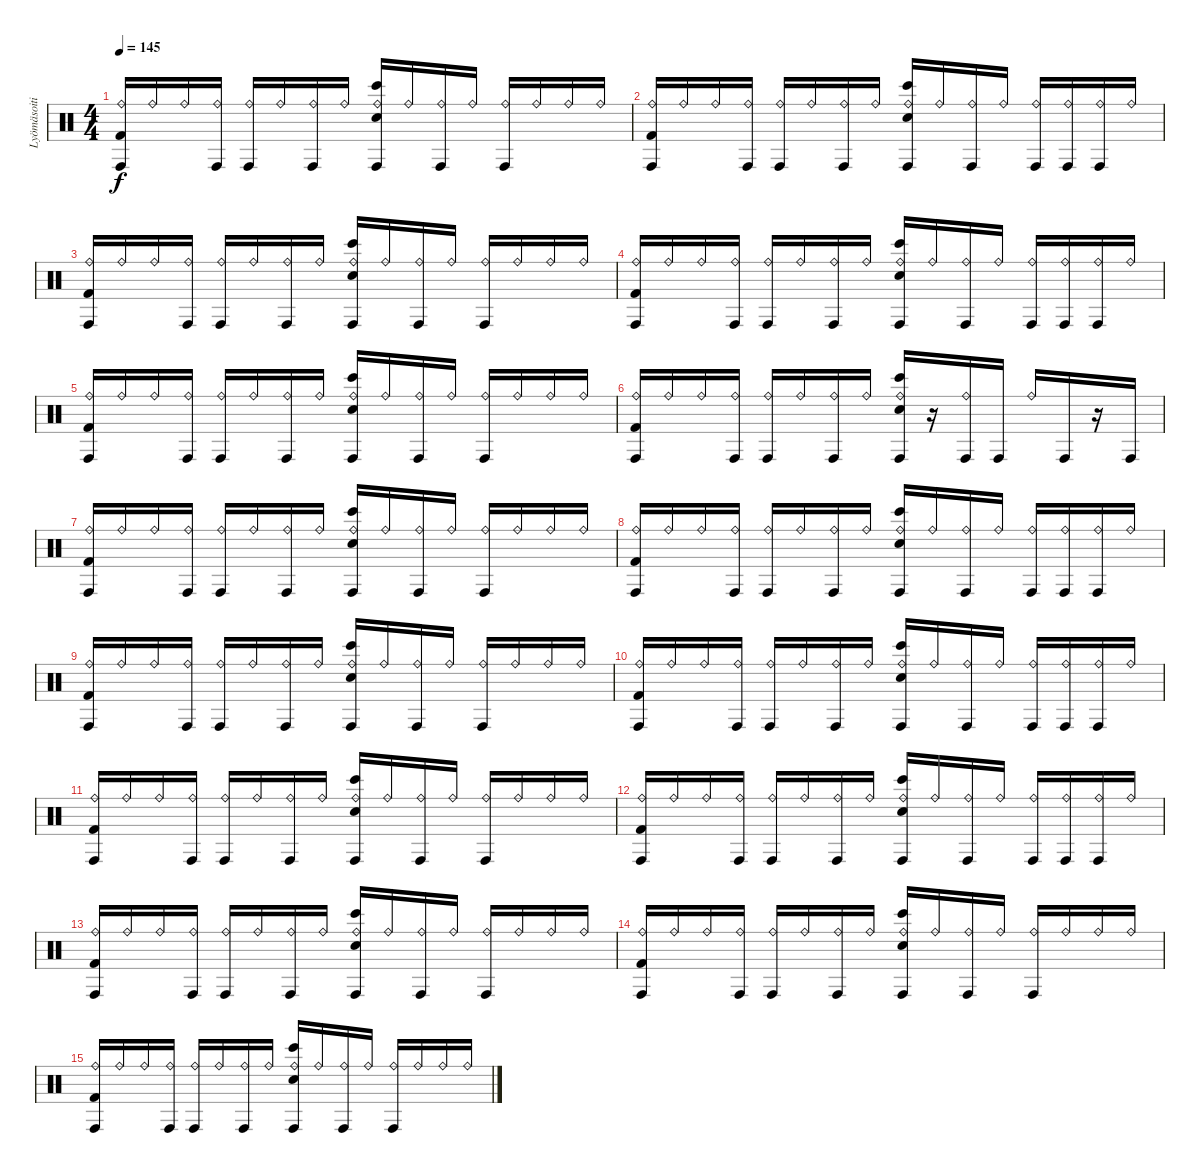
\track ("Lyömäsoitin" "Lyömäsoiti") {instrument percussion}
\staff {score}
\articulation defaults
\ts (4 4)
\tempo 145
\clef neutral
\ks c
("Ride (bell)" "Conga high (hit)" "Kick (hit) 2").16{dy f} "Ride (bell)".16 "Ride (bell)".16 ("Ride (bell)" "Conga high (hit)").16 ("Ride (bell)" "Conga high (hit)").16 "Ride (bell)".16 ("Ride (bell)" "Conga high (hit)").16 "Ride (bell)".16 ("Ride (bell)" "Conga high (hit)" "Bongo High (hit)" "Electric Snare (hit)").16 "Ride (bell)".16 ("Ride (bell)" "Conga high (hit)").16 "Ride (bell)".16 ("Ride (bell)" "Conga high (hit)").16 "Ride (bell)".16 "Ride (bell)".16 "Ride (bell)".16 |
("Ride (bell)" "Conga high (hit)" "Kick (hit) 2").16 "Ride (bell)".16 "Ride (bell)".16 ("Ride (bell)" "Conga high (hit)").16 ("Ride (bell)" "Conga high (hit)").16 "Ride (bell)".16 ("Ride (bell)" "Conga high (hit)").16 "Ride (bell)".16 ("Ride (bell)" "Conga high (hit)" "Bongo High (hit)" "Electric Snare (hit)").16 "Ride (bell)".16 ("Ride (bell)" "Conga high (hit)").16 "Ride (bell)".16 ("Ride (bell)" "Conga high (hit)").16 ("Ride (bell)" "Conga high (hit)").16 ("Ride (bell)" "Conga high (hit)").16 "Ride (bell)".16 |
("Ride (bell)" "Conga high (hit)" "Kick (hit) 2").16 "Ride (bell)".16 "Ride (bell)".16 ("Ride (bell)" "Conga high (hit)").16 ("Ride (bell)" "Conga high (hit)").16 "Ride (bell)".16 ("Ride (bell)" "Conga high (hit)").16 "Ride (bell)".16 ("Ride (bell)" "Conga high (hit)" "Bongo High (hit)" "Electric Snare (hit)").16 "Ride (bell)".16 ("Ride (bell)" "Conga high (hit)").16 "Ride (bell)".16 ("Ride (bell)" "Conga high (hit)").16 "Ride (bell)".16 "Ride (bell)".16 "Ride (bell)".16 |
("Ride (bell)" "Conga high (hit)" "Kick (hit) 2").16 "Ride (bell)".16 "Ride (bell)".16 ("Ride (bell)" "Conga high (hit)").16 ("Ride (bell)" "Conga high (hit)").16 "Ride (bell)".16 ("Ride (bell)" "Conga high (hit)").16 "Ride (bell)".16 ("Ride (bell)" "Conga high (hit)" "Bongo High (hit)" "Electric Snare (hit)").16 "Ride (bell)".16 ("Ride (bell)" "Conga high (hit)").16 "Ride (bell)".16 ("Ride (bell)" "Conga high (hit)").16 ("Ride (bell)" "Conga high (hit)").16 ("Ride (bell)" "Conga high (hit)").16 "Ride (bell)".16 |
("Ride (bell)" "Conga high (hit)" "Kick (hit) 2").16 "Ride (bell)".16 "Ride (bell)".16 ("Ride (bell)" "Conga high (hit)").16 ("Ride (bell)" "Conga high (hit)").16 "Ride (bell)".16 ("Ride (bell)" "Conga high (hit)").16 "Ride (bell)".16 ("Ride (bell)" "Conga high (hit)" "Bongo High (hit)" "Electric Snare (hit)").16 "Ride (bell)".16 ("Ride (bell)" "Conga high (hit)").16 "Ride (bell)".16 ("Ride (bell)" "Conga high (hit)").16 "Ride (bell)".16 "Ride (bell)".16 "Ride (bell)".16 |
("Ride (bell)" "Conga high (hit)" "Kick (hit) 2").16 "Ride (bell)".16 "Ride (bell)".16 ("Ride (bell)" "Conga high (hit)").16 ("Ride (bell)" "Conga high (hit)").16 "Ride (bell)".16 ("Ride (bell)" "Conga high (hit)").16 "Ride (bell)".16 ("Ride (bell)" "Conga high (hit)" "Bongo High (hit)" "Electric Snare (hit)").16 r.16 ("Ride (bell)" "Conga high (hit)").16 "Conga high (hit)".16 "Ride (bell)".16 "Conga high (hit)".16 r.16 "Conga high (hit)".16 |
("Ride (bell)" "Conga high (hit)" "Kick (hit) 2").16 "Ride (bell)".16 "Ride (bell)".16 ("Ride (bell)" "Conga high (hit)").16 ("Ride (bell)" "Conga high (hit)").16 "Ride (bell)".16 ("Ride (bell)" "Conga high (hit)").16 "Ride (bell)".16 ("Ride (bell)" "Conga high (hit)" "Bongo High (hit)" "Electric Snare (hit)").16 "Ride (bell)".16 ("Ride (bell)" "Conga high (hit)").16 "Ride (bell)".16 ("Ride (bell)" "Conga high (hit)").16 "Ride (bell)".16 "Ride (bell)".16 "Ride (bell)".16 |
("Ride (bell)" "Conga high (hit)" "Kick (hit) 2").16 "Ride (bell)".16 "Ride (bell)".16 ("Ride (bell)" "Conga high (hit)").16 ("Ride (bell)" "Conga high (hit)").16 "Ride (bell)".16 ("Ride (bell)" "Conga high (hit)").16 "Ride (bell)".16 ("Ride (bell)" "Conga high (hit)" "Bongo High (hit)" "Electric Snare (hit)").16 "Ride (bell)".16 ("Ride (bell)" "Conga high (hit)").16 "Ride (bell)".16 ("Ride (bell)" "Conga high (hit)").16 ("Ride (bell)" "Conga high (hit)").16 ("Ride (bell)" "Conga high (hit)").16 "Ride (bell)".16 |
("Ride (bell)" "Conga high (hit)" "Kick (hit) 2").16 "Ride (bell)".16 "Ride (bell)".16 ("Ride (bell)" "Conga high (hit)").16 ("Ride (bell)" "Conga high (hit)").16 "Ride (bell)".16 ("Ride (bell)" "Conga high (hit)").16 "Ride (bell)".16 ("Ride (bell)" "Conga high (hit)" "Bongo High (hit)" "Electric Snare (hit)").16 "Ride (bell)".16 ("Ride (bell)" "Conga high (hit)").16 "Ride (bell)".16 ("Ride (bell)" "Conga high (hit)").16 "Ride (bell)".16 "Ride (bell)".16 "Ride (bell)".16 |
("Ride (bell)" "Conga high (hit)" "Kick (hit) 2").16 "Ride (bell)".16 "Ride (bell)".16 ("Ride (bell)" "Conga high (hit)").16 ("Ride (bell)" "Conga high (hit)").16 "Ride (bell)".16 ("Ride (bell)" "Conga high (hit)").16 "Ride (bell)".16 ("Ride (bell)" "Conga high (hit)" "Bongo High (hit)" "Electric Snare (hit)").16 "Ride (bell)".16 ("Ride (bell)" "Conga high (hit)").16 "Ride (bell)".16 ("Ride (bell)" "Conga high (hit)").16 ("Ride (bell)" "Conga high (hit)").16 ("Ride (bell)" "Conga high (hit)").16 "Ride (bell)".16 |
("Ride (bell)" "Conga high (hit)" "Kick (hit) 2").16 "Ride (bell)".16 "Ride (bell)".16 ("Ride (bell)" "Conga high (hit)").16 ("Ride (bell)" "Conga high (hit)").16 "Ride (bell)".16 ("Ride (bell)" "Conga high (hit)").16 "Ride (bell)".16 ("Ride (bell)" "Conga high (hit)" "Bongo High (hit)" "Electric Snare (hit)").16 "Ride (bell)".16 ("Ride (bell)" "Conga high (hit)").16 "Ride (bell)".16 ("Ride (bell)" "Conga high (hit)").16 "Ride (bell)".16 "Ride (bell)".16 "Ride (bell)".16 |
("Ride (bell)" "Conga high (hit)" "Kick (hit) 2").16 "Ride (bell)".16 "Ride (bell)".16 ("Ride (bell)" "Conga high (hit)").16 ("Ride (bell)" "Conga high (hit)").16 "Ride (bell)".16 ("Ride (bell)" "Conga high (hit)").16 "Ride (bell)".16 ("Ride (bell)" "Conga high (hit)" "Bongo High (hit)" "Electric Snare (hit)").16 "Ride (bell)".16 ("Ride (bell)" "Conga high (hit)").16 "Ride (bell)".16 ("Ride (bell)" "Conga high (hit)").16 ("Ride (bell)" "Conga high (hit)").16 ("Ride (bell)" "Conga high (hit)").16 "Ride (bell)".16 |
("Ride (bell)" "Conga high (hit)" "Kick (hit) 2").16 "Ride (bell)".16 "Ride (bell)".16 ("Ride (bell)" "Conga high (hit)").16 ("Ride (bell)" "Conga high (hit)").16 "Ride (bell)".16 ("Ride (bell)" "Conga high (hit)").16 "Ride (bell)".16 ("Ride (bell)" "Conga high (hit)" "Bongo High (hit)" "Electric Snare (hit)").16 "Ride (bell)".16 ("Ride (bell)" "Conga high (hit)").16 "Ride (bell)".16 ("Ride (bell)" "Conga high (hit)").16 "Ride (bell)".16 "Ride (bell)".16 "Ride (bell)".16 |
("Ride (bell)" "Conga high (hit)" "Kick (hit) 2").16{volume 0} "Ride (bell)".16 "Ride (bell)".16 ("Ride (bell)" "Conga high (hit)").16 ("Ride (bell)" "Conga high (hit)").16 "Ride (bell)".16 ("Ride (bell)" "Conga high (hit)").16 "Ride (bell)".16 ("Ride (bell)" "Conga high (hit)" "Bongo High (hit)" "Electric Snare (hit)").16 "Ride (bell)".16 ("Ride (bell)" "Conga high (hit)").16 "Ride (bell)".16 ("Ride (bell)" "Conga high (hit)").16 "Ride (bell)".16 "Ride (bell)".16 "Ride (bell)".16 |
("Ride (bell)" "Conga high (hit)" "Kick (hit) 2").16 "Ride (bell)".16 "Ride (bell)".16 ("Ride (bell)" "Conga high (hit)").16 ("Ride (bell)" "Conga high (hit)").16 "Ride (bell)".16 ("Ride (bell)" "Conga high (hit)").16 "Ride (bell)".16 ("Ride (bell)" "Conga high (hit)" "Bongo High (hit)" "Electric Snare (hit)").16 "Ride (bell)".16 ("Ride (bell)" "Conga high (hit)").16 "Ride (bell)".16 ("Ride (bell)" "Conga high (hit)").16 "Ride (bell)".16 "Ride (bell)".16 "Ride (bell)".16
